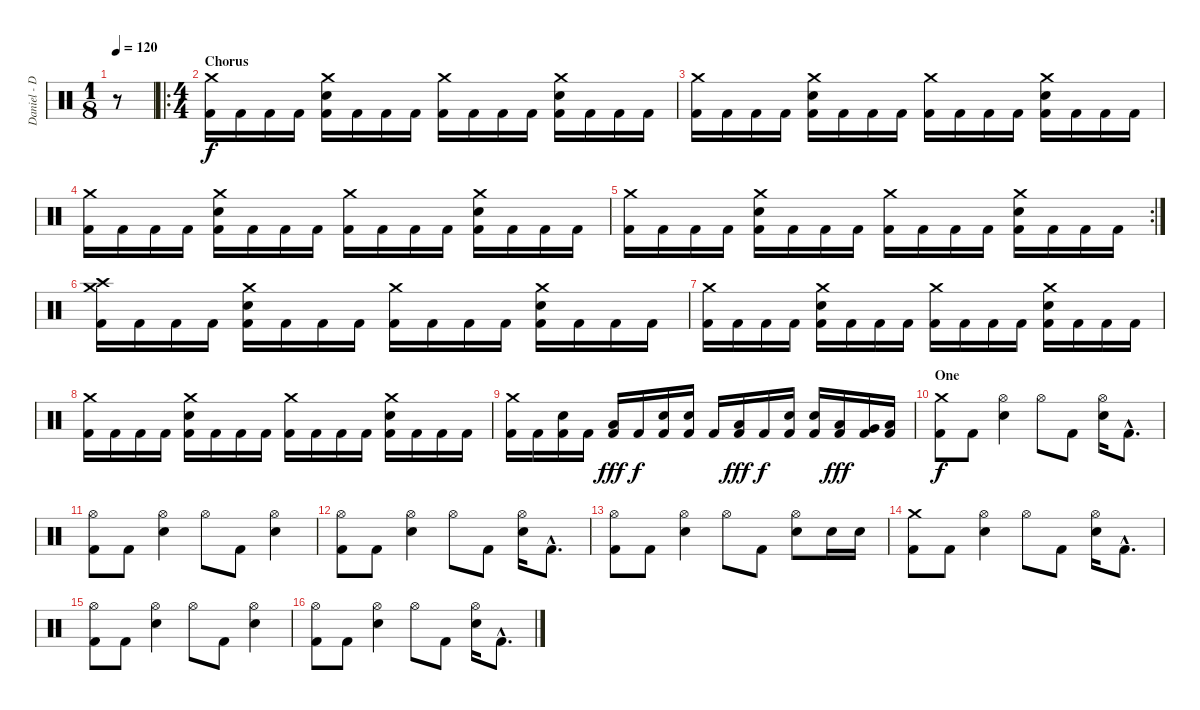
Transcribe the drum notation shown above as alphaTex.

\track ("Daniel - Drums" "Daniel - D") {instrument percussion}
\staff {score}
\articulation defaults
\ts (1 8)
\tempo 120
\clef neutral
\ks c
r.8{dy f} |
\ro
\ts (4 4)
\section ("" "Chorus")
("Crash medium (hit)" "Kick (hit) 2").16 "Kick (hit) 2".16 "Kick (hit) 2".16 "Kick (hit) 2".16 ("Crash medium (hit)" "Electric Snare (hit)" "Kick (hit) 2").16 "Kick (hit) 2".16 "Kick (hit) 2".16 "Kick (hit) 2".16 ("Crash medium (hit)" "Kick (hit) 2").16 "Kick (hit) 2".16 "Kick (hit) 2".16 "Kick (hit) 2".16 ("Crash medium (hit)" "Electric Snare (hit)" "Kick (hit) 2").16 "Kick (hit) 2".16 "Kick (hit) 2".16 "Kick (hit) 2".16 |
("Crash medium (hit)" "Kick (hit) 2").16 "Kick (hit) 2".16 "Kick (hit) 2".16 "Kick (hit) 2".16 ("Crash medium (hit)" "Electric Snare (hit)" "Kick (hit) 2").16 "Kick (hit) 2".16 "Kick (hit) 2".16 "Kick (hit) 2".16 ("Crash medium (hit)" "Kick (hit) 2").16 "Kick (hit) 2".16 "Kick (hit) 2".16 "Kick (hit) 2".16 ("Crash medium (hit)" "Electric Snare (hit)" "Kick (hit) 2").16 "Kick (hit) 2".16 "Kick (hit) 2".16 "Kick (hit) 2".16 |
("Crash medium (hit)" "Kick (hit) 2").16 "Kick (hit) 2".16 "Kick (hit) 2".16 "Kick (hit) 2".16 ("Crash medium (hit)" "Electric Snare (hit)" "Kick (hit) 2").16 "Kick (hit) 2".16 "Kick (hit) 2".16 "Kick (hit) 2".16 ("Crash medium (hit)" "Kick (hit) 2").16 "Kick (hit) 2".16 "Kick (hit) 2".16 "Kick (hit) 2".16 ("Crash medium (hit)" "Electric Snare (hit)" "Kick (hit) 2").16 "Kick (hit) 2".16 "Kick (hit) 2".16 "Kick (hit) 2".16 |
\rc 2
("Crash medium (hit)" "Kick (hit) 2").16 "Kick (hit) 2".16 "Kick (hit) 2".16 "Kick (hit) 2".16 ("Crash medium (hit)" "Electric Snare (hit)" "Kick (hit) 2").16 "Kick (hit) 2".16 "Kick (hit) 2".16 "Kick (hit) 2".16 ("Crash medium (hit)" "Kick (hit) 2").16 "Kick (hit) 2".16 "Kick (hit) 2".16 "Kick (hit) 2".16 ("Crash medium (hit)" "Electric Snare (hit)" "Kick (hit) 2").16 "Kick (hit) 2".16 "Kick (hit) 2".16 "Kick (hit) 2".16 |
("Crash medium (hit)" "Crash high (hit)" "Kick (hit) 2").16 "Kick (hit) 2".16 "Kick (hit) 2".16 "Kick (hit) 2".16 ("Crash medium (hit)" "Electric Snare (hit)" "Kick (hit) 2").16 "Kick (hit) 2".16 "Kick (hit) 2".16 "Kick (hit) 2".16 ("Crash medium (hit)" "Kick (hit) 2").16 "Kick (hit) 2".16 "Kick (hit) 2".16 "Kick (hit) 2".16 ("Crash medium (hit)" "Electric Snare (hit)" "Kick (hit) 2").16 "Kick (hit) 2".16 "Kick (hit) 2".16 "Kick (hit) 2".16 |
("Crash medium (hit)" "Kick (hit) 2").16 "Kick (hit) 2".16 "Kick (hit) 2".16 "Kick (hit) 2".16 ("Crash medium (hit)" "Electric Snare (hit)" "Kick (hit) 2").16 "Kick (hit) 2".16 "Kick (hit) 2".16 "Kick (hit) 2".16 ("Crash medium (hit)" "Kick (hit) 2").16 "Kick (hit) 2".16 "Kick (hit) 2".16 "Kick (hit) 2".16 ("Crash medium (hit)" "Electric Snare (hit)" "Kick (hit) 2").16 "Kick (hit) 2".16 "Kick (hit) 2".16 "Kick (hit) 2".16 |
("Crash medium (hit)" "Kick (hit) 2").16 "Kick (hit) 2".16 "Kick (hit) 2".16 "Kick (hit) 2".16 ("Crash medium (hit)" "Electric Snare (hit)" "Kick (hit) 2").16 "Kick (hit) 2".16 "Kick (hit) 2".16 "Kick (hit) 2".16 ("Crash medium (hit)" "Kick (hit) 2").16 "Kick (hit) 2".16 "Kick (hit) 2".16 "Kick (hit) 2".16 ("Crash medium (hit)" "Electric Snare (hit)" "Kick (hit) 2").16 "Kick (hit) 2".16 "Kick (hit) 2".16 "Kick (hit) 2".16 |
("Crash medium (hit)" "Kick (hit) 2").16 "Kick (hit) 2".16 ("Electric Snare (hit)" "Kick (hit) 2").16 "Kick (hit) 2".16 ("Low Tom (hit)" "Kick (hit) 2").16{dy fff} "Kick (hit) 2".16{dy f} ("Electric Snare (hit)" "Kick (hit) 2").16 ("Electric Snare (hit)" "Kick (hit) 2").16 "Kick (hit) 2".16 ("Low Tom (hit)" "Kick (hit) 2").16{dy fff} "Kick (hit) 2".16{dy f} ("Electric Snare (hit)" "Kick (hit) 2").16 ("Electric Snare (hit)" "Kick (hit) 2").16 ("Low Tom (hit)" "Kick (hit) 2").16{dy fff} ("Very Low Tom (hit)" "Kick (hit) 2").16 ("Low Floor Tom (hit)" "Kick (hit) 2").16 |
\section ("" "One")
("Crash medium (hit)" "Kick (hit) 2").8{dy f} "Kick (hit) 2".8 ("Hi-Hat (open)" "Electric Snare (hit)").4 "Hi-Hat (open)".8 "Kick (hit) 2".8 ("Hi-Hat (open)" "Electric Snare (hit)").16 "Kick (hit) 2"{hac}.8{d} |
("Hi-Hat (open)" "Kick (hit) 2").8 "Kick (hit) 2".8 ("Hi-Hat (open)" "Electric Snare (hit)").4 "Hi-Hat (open)".8 "Kick (hit) 2".8 ("Hi-Hat (open)" "Electric Snare (hit)").4 |
("Hi-Hat (open)" "Kick (hit) 2").8 "Kick (hit) 2".8 ("Hi-Hat (open)" "Electric Snare (hit)").4 "Hi-Hat (open)".8 "Kick (hit) 2".8 ("Hi-Hat (open)" "Electric Snare (hit)").16 "Kick (hit) 2"{hac}.8{d} |
("Hi-Hat (open)" "Kick (hit) 2").8 "Kick (hit) 2".8 ("Hi-Hat (open)" "Electric Snare (hit)").4 "Hi-Hat (open)".8 "Kick (hit) 2".8 ("Hi-Hat (open)" "Electric Snare (hit)").8 "Electric Snare (hit)".16 "Electric Snare (hit)".16 |
("Crash medium (hit)" "Kick (hit) 2").8 "Kick (hit) 2".8 ("Hi-Hat (open)" "Electric Snare (hit)").4 "Hi-Hat (open)".8 "Kick (hit) 2".8 ("Hi-Hat (open)" "Electric Snare (hit)").16 "Kick (hit) 2"{hac}.8{d} |
("Hi-Hat (open)" "Kick (hit) 2").8 "Kick (hit) 2".8 ("Hi-Hat (open)" "Electric Snare (hit)").4 "Hi-Hat (open)".8 "Kick (hit) 2".8 ("Hi-Hat (open)" "Electric Snare (hit)").4 |
("Hi-Hat (open)" "Kick (hit) 2").8 "Kick (hit) 2".8 ("Hi-Hat (open)" "Electric Snare (hit)").4 "Hi-Hat (open)".8 "Kick (hit) 2".8 ("Hi-Hat (open)" "Electric Snare (hit)").16 "Kick (hit) 2"{hac}.8{d}
